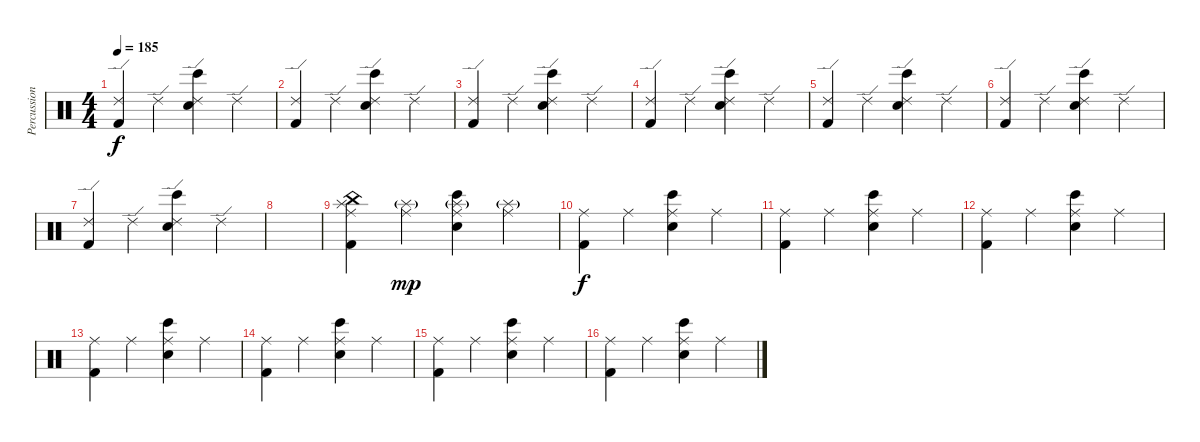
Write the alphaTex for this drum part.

\track ("Percussion" "Percussion") {instrument percussion}
\staff {score}
\articulation defaults
\ts (4 4)
\tempo 185
\clef neutral
\ks c
("Ride (edge) 2" "Kick (hit) 2").4{dy f} "Ride (edge) 2".4 ("Bongo High (hit)" "Electric Snare (hit)" "Ride (edge) 2").4 "Ride (edge) 2".4 |
("Ride (edge) 2" "Kick (hit) 2").4 "Ride (edge) 2".4 ("Bongo High (hit)" "Electric Snare (hit)" "Ride (edge) 2").4 "Ride (edge) 2".4 |
("Ride (edge) 2" "Kick (hit) 2").4 "Ride (edge) 2".4 ("Bongo High (hit)" "Electric Snare (hit)" "Ride (edge) 2").4 "Ride (edge) 2".4 |
("Ride (edge) 2" "Kick (hit) 2").4 "Ride (edge) 2".4 ("Bongo High (hit)" "Electric Snare (hit)" "Ride (edge) 2").4 "Ride (edge) 2".4 |
("Ride (edge) 2" "Kick (hit) 2").4 "Ride (edge) 2".4 ("Bongo High (hit)" "Electric Snare (hit)" "Ride (edge) 2").4 "Ride (edge) 2".4 |
("Ride (edge) 2" "Kick (hit) 2").4 "Ride (edge) 2".4 ("Bongo High (hit)" "Electric Snare (hit)" "Ride (edge) 2").4 "Ride (edge) 2".4 |
("Ride (edge) 2" "Kick (hit) 2").4 "Ride (edge) 2".4 ("Bongo High (hit)" "Electric Snare (hit)" "Ride (edge) 2").4 "Ride (edge) 2".4 |
|
("Splash (hit)" "Ride (middle)" "China (hit)" "Kick (hit) 2").4 ("Splash (hit)"{g} "Ride (middle)").4{dy mp} ("Bongo High (hit)" "Electric Snare (hit)" "Splash (hit)"{g} "Ride (middle)").4 ("Splash (hit)"{g} "Ride (middle)").4 |
("Ride (middle)" "Kick (hit) 2").4{dy f} "Ride (middle)".4 ("Bongo High (hit)" "Electric Snare (hit)" "Ride (middle)").4 "Ride (middle)".4 |
("Ride (middle)" "Kick (hit) 2").4 "Ride (middle)".4 ("Bongo High (hit)" "Electric Snare (hit)" "Ride (middle)").4 "Ride (middle)".4 |
("Ride (middle)" "Kick (hit) 2").4 "Ride (middle)".4 ("Bongo High (hit)" "Electric Snare (hit)" "Ride (middle)").4 "Ride (middle)".4 |
("Ride (middle)" "Kick (hit) 2").4 "Ride (middle)".4 ("Bongo High (hit)" "Electric Snare (hit)" "Ride (middle)").4 "Ride (middle)".4 |
("Ride (middle)" "Kick (hit) 2").4 "Ride (middle)".4 ("Bongo High (hit)" "Electric Snare (hit)" "Ride (middle)").4 "Ride (middle)".4 |
("Ride (middle)" "Kick (hit) 2").4 "Ride (middle)".4 ("Bongo High (hit)" "Electric Snare (hit)" "Ride (middle)").4 "Ride (middle)".4 |
("Ride (middle)" "Kick (hit) 2").4 "Ride (middle)".4 ("Bongo High (hit)" "Electric Snare (hit)" "Ride (middle)").4 "Ride (middle)".4
